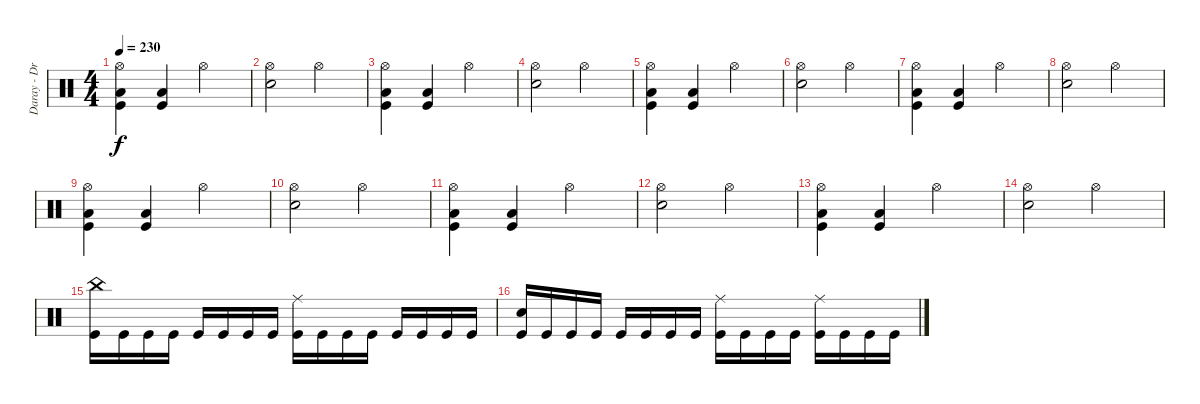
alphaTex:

\track ("Daray - Drums" "Daray - Dr") {instrument percussion}
\staff {score}
\articulation defaults
\ts (4 4)
\tempo 230
\clef neutral
\ks c
("Hi-Hat (open)" "Low Floor Tom (hit)" "Kick (hit)").4{dy f} ("Low Floor Tom (hit)" "Kick (hit)").4 "Hi-Hat (open)".2 |
("Hi-Hat (open)" "Electric Snare (hit)").2 "Hi-Hat (open)".2 |
("Hi-Hat (open)" "Low Floor Tom (hit)" "Kick (hit)").4 ("Low Floor Tom (hit)" "Kick (hit)").4 "Hi-Hat (open)".2 |
("Hi-Hat (open)" "Electric Snare (hit)").2 "Hi-Hat (open)".2 |
("Hi-Hat (open)" "Low Floor Tom (hit)" "Kick (hit)").4 ("Low Floor Tom (hit)" "Kick (hit)").4 "Hi-Hat (open)".2 |
("Hi-Hat (open)" "Electric Snare (hit)").2 "Hi-Hat (open)".2 |
("Hi-Hat (open)" "Low Floor Tom (hit)" "Kick (hit)").4 ("Low Floor Tom (hit)" "Kick (hit)").4 "Hi-Hat (open)".2 |
("Hi-Hat (open)" "Electric Snare (hit)").2 "Hi-Hat (open)".2 |
("Hi-Hat (open)" "Low Floor Tom (hit)" "Kick (hit)").4 ("Low Floor Tom (hit)" "Kick (hit)").4 "Hi-Hat (open)".2 |
("Hi-Hat (open)" "Electric Snare (hit)").2 "Hi-Hat (open)".2 |
("Hi-Hat (open)" "Low Floor Tom (hit)" "Kick (hit)").4 ("Low Floor Tom (hit)" "Kick (hit)").4 "Hi-Hat (open)".2 |
("Hi-Hat (open)" "Electric Snare (hit)").2 "Hi-Hat (open)".2 |
("Hi-Hat (open)" "Low Floor Tom (hit)" "Kick (hit)").4 ("Low Floor Tom (hit)" "Kick (hit)").4 "Hi-Hat (open)".2 |
("Hi-Hat (open)" "Electric Snare (hit)").2 "Hi-Hat (open)".2 |
("China (hit)" "Kick (hit)").16 "Kick (hit)".16 "Kick (hit)".16 "Kick (hit)".16 "Kick (hit)".16 "Kick (hit)".16 "Kick (hit)".16 "Kick (hit)".16 ("Ride (middle)" "Kick (hit)").16 "Kick (hit)".16 "Kick (hit)".16 "Kick (hit)".16 "Kick (hit)".16 "Kick (hit)".16 "Kick (hit)".16 "Kick (hit)".16 |
("Electric Snare (hit)" "Kick (hit)").16 "Kick (hit)".16 "Kick (hit)".16 "Kick (hit)".16 "Kick (hit)".16 "Kick (hit)".16 "Kick (hit)".16 "Kick (hit)".16 ("Ride (middle)" "Kick (hit)").16 "Kick (hit)".16 "Kick (hit)".16 "Kick (hit)".16 ("Ride (middle)" "Kick (hit)").16 "Kick (hit)".16 "Kick (hit)".16 "Kick (hit)".16
